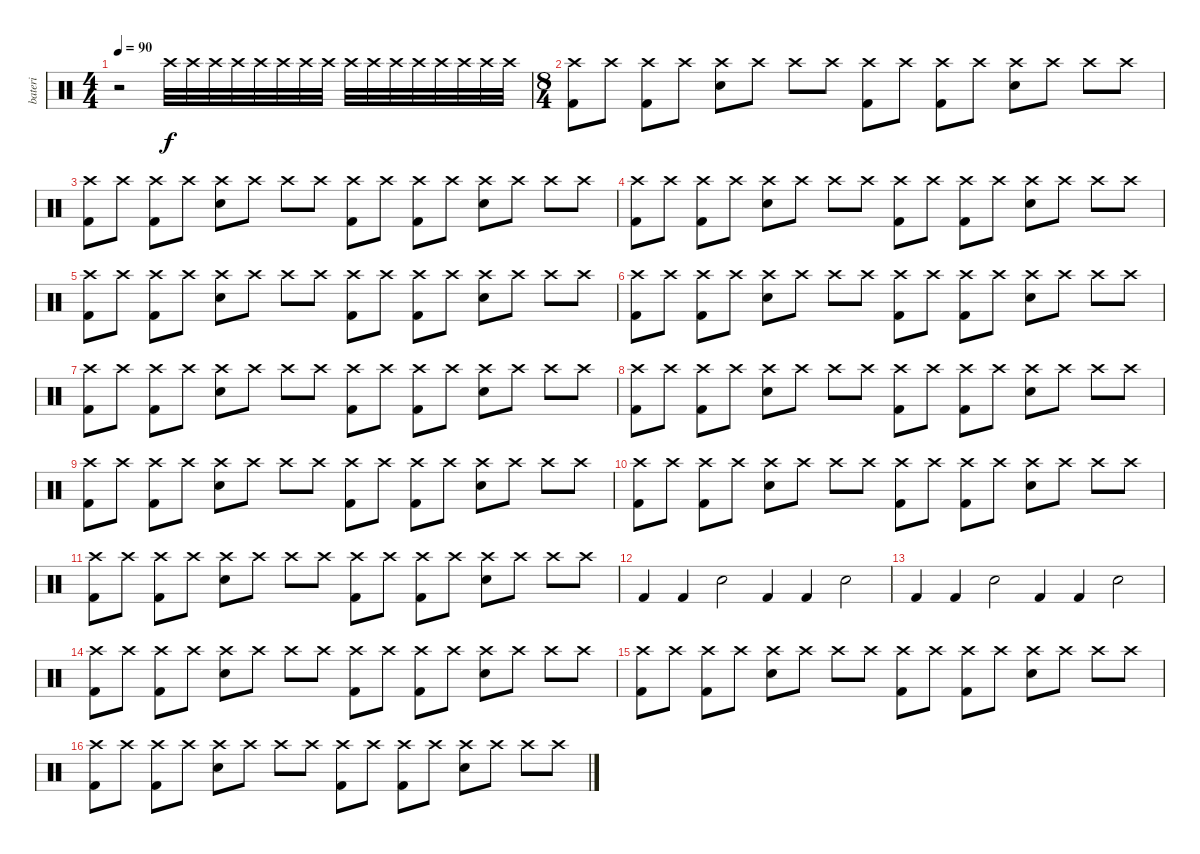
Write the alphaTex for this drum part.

\track ("bateri" "bateri") {instrument percussion}
\staff {score}
\articulation defaults
\ts (4 4)
\tempo 90
\clef neutral
\ks c
r.2{dy f} "Crash high (hit)".32{volume 2} "Crash high (hit)".32{volume 4} "Crash high (hit)".32{volume 5} "Crash high (hit)".32{volume 7} "Crash high (hit)".32{volume 8} "Crash high (hit)".32{volume 9} "Crash high (hit)".32{volume 11} "Crash high (hit)".32{volume 13} "Crash high (hit)".32 "Crash high (hit)".32 "Crash high (hit)".32 "Crash high (hit)".32 "Crash high (hit)".32 "Crash high (hit)".32 "Crash high (hit)".32 "Crash high (hit)".32 |
\ts (8 4)
("Kick (hit) 2" "Crash high (hit)").8 "Crash high (hit)".8 ("Crash high (hit)" "Kick (hit) 2").8 "Crash high (hit)".8 ("Crash high (hit)" "Snare (hit) 2").8 "Crash high (hit)".8 "Crash high (hit)".8 "Crash high (hit)".8 ("Kick (hit) 2" "Crash high (hit)").8 "Crash high (hit)".8 ("Crash high (hit)" "Kick (hit) 2").8 "Crash high (hit)".8 ("Crash high (hit)" "Snare (hit) 2").8 "Crash high (hit)".8 "Crash high (hit)".8 "Crash high (hit)".8 |
("Kick (hit) 2" "Crash high (hit)").8 "Crash high (hit)".8 ("Crash high (hit)" "Kick (hit) 2").8 "Crash high (hit)".8 ("Crash high (hit)" "Snare (hit) 2").8 "Crash high (hit)".8 "Crash high (hit)".8 "Crash high (hit)".8 ("Kick (hit) 2" "Crash high (hit)").8 "Crash high (hit)".8 ("Crash high (hit)" "Kick (hit) 2").8 "Crash high (hit)".8 ("Crash high (hit)" "Snare (hit) 2").8 "Crash high (hit)".8 "Crash high (hit)".8 "Crash high (hit)".8 |
("Kick (hit) 2" "Crash high (hit)").8 "Crash high (hit)".8 ("Crash high (hit)" "Kick (hit) 2").8 "Crash high (hit)".8 ("Crash high (hit)" "Snare (hit) 2").8 "Crash high (hit)".8 "Crash high (hit)".8 "Crash high (hit)".8 ("Kick (hit) 2" "Crash high (hit)").8 "Crash high (hit)".8 ("Crash high (hit)" "Kick (hit) 2").8 "Crash high (hit)".8 ("Crash high (hit)" "Snare (hit) 2").8 "Crash high (hit)".8 "Crash high (hit)".8 "Crash high (hit)".8 |
("Kick (hit) 2" "Crash high (hit)").8 "Crash high (hit)".8 ("Crash high (hit)" "Kick (hit) 2").8 "Crash high (hit)".8 ("Crash high (hit)" "Snare (hit) 2").8 "Crash high (hit)".8 "Crash high (hit)".8 "Crash high (hit)".8 ("Kick (hit) 2" "Crash high (hit)").8 "Crash high (hit)".8 ("Crash high (hit)" "Kick (hit) 2").8 "Crash high (hit)".8 ("Crash high (hit)" "Snare (hit) 2").8 "Crash high (hit)".8 "Crash high (hit)".8 "Crash high (hit)".8 |
("Kick (hit) 2" "Crash high (hit)").8 "Crash high (hit)".8 ("Crash high (hit)" "Kick (hit) 2").8 "Crash high (hit)".8 ("Crash high (hit)" "Snare (hit) 2").8 "Crash high (hit)".8 "Crash high (hit)".8 "Crash high (hit)".8 ("Kick (hit) 2" "Crash high (hit)").8 "Crash high (hit)".8 ("Crash high (hit)" "Kick (hit) 2").8 "Crash high (hit)".8 ("Crash high (hit)" "Snare (hit) 2").8 "Crash high (hit)".8 "Crash high (hit)".8 "Crash high (hit)".8 |
("Kick (hit) 2" "Crash high (hit)").8 "Crash high (hit)".8 ("Crash high (hit)" "Kick (hit) 2").8 "Crash high (hit)".8 ("Crash high (hit)" "Snare (hit) 2").8 "Crash high (hit)".8 "Crash high (hit)".8 "Crash high (hit)".8 ("Kick (hit) 2" "Crash high (hit)").8 "Crash high (hit)".8 ("Crash high (hit)" "Kick (hit) 2").8 "Crash high (hit)".8 ("Crash high (hit)" "Snare (hit) 2").8 "Crash high (hit)".8 "Crash high (hit)".8 "Crash high (hit)".8 |
("Kick (hit) 2" "Crash high (hit)").8 "Crash high (hit)".8 ("Crash high (hit)" "Kick (hit) 2").8 "Crash high (hit)".8 ("Crash high (hit)" "Snare (hit) 2").8 "Crash high (hit)".8 "Crash high (hit)".8 "Crash high (hit)".8 ("Kick (hit) 2" "Crash high (hit)").8 "Crash high (hit)".8 ("Crash high (hit)" "Kick (hit) 2").8 "Crash high (hit)".8 ("Crash high (hit)" "Snare (hit) 2").8 "Crash high (hit)".8 "Crash high (hit)".8 "Crash high (hit)".8 |
("Kick (hit) 2" "Crash high (hit)").8 "Crash high (hit)".8 ("Crash high (hit)" "Kick (hit) 2").8 "Crash high (hit)".8 ("Crash high (hit)" "Snare (hit) 2").8 "Crash high (hit)".8 "Crash high (hit)".8 "Crash high (hit)".8 ("Kick (hit) 2" "Crash high (hit)").8 "Crash high (hit)".8 ("Crash high (hit)" "Kick (hit) 2").8 "Crash high (hit)".8 ("Crash high (hit)" "Snare (hit) 2").8 "Crash high (hit)".8 "Crash high (hit)".8 "Crash high (hit)".8 |
("Kick (hit) 2" "Crash high (hit)").8 "Crash high (hit)".8 ("Crash high (hit)" "Kick (hit) 2").8 "Crash high (hit)".8 ("Crash high (hit)" "Snare (hit) 2").8 "Crash high (hit)".8 "Crash high (hit)".8 "Crash high (hit)".8 ("Kick (hit) 2" "Crash high (hit)").8 "Crash high (hit)".8 ("Crash high (hit)" "Kick (hit) 2").8 "Crash high (hit)".8 ("Crash high (hit)" "Snare (hit) 2").8 "Crash high (hit)".8 "Crash high (hit)".8 "Crash high (hit)".8 |
("Kick (hit) 2" "Crash high (hit)").8 "Crash high (hit)".8 ("Crash high (hit)" "Kick (hit) 2").8 "Crash high (hit)".8 ("Crash high (hit)" "Snare (hit) 2").8 "Crash high (hit)".8 "Crash high (hit)".8 "Crash high (hit)".8 ("Kick (hit) 2" "Crash high (hit)").8 "Crash high (hit)".8 ("Crash high (hit)" "Kick (hit) 2").8 "Crash high (hit)".8 ("Crash high (hit)" "Snare (hit) 2").8 "Crash high (hit)".8 "Crash high (hit)".8 "Crash high (hit)".8 |
"Kick (hit) 2".4 "Kick (hit) 2".4 "Snare (hit) 2".2 "Kick (hit) 2".4 "Kick (hit) 2".4 "Snare (hit) 2".2 |
"Kick (hit) 2".4 "Kick (hit) 2".4 "Snare (hit) 2".2 "Kick (hit) 2".4 "Kick (hit) 2".4 "Snare (hit) 2".2 |
("Kick (hit) 2" "Crash high (hit)").8 "Crash high (hit)".8 ("Crash high (hit)" "Kick (hit) 2").8 "Crash high (hit)".8 ("Crash high (hit)" "Snare (hit) 2").8 "Crash high (hit)".8 "Crash high (hit)".8 "Crash high (hit)".8 ("Kick (hit) 2" "Crash high (hit)").8 "Crash high (hit)".8 ("Crash high (hit)" "Kick (hit) 2").8 "Crash high (hit)".8 ("Crash high (hit)" "Snare (hit) 2").8 "Crash high (hit)".8 "Crash high (hit)".8 "Crash high (hit)".8 |
("Kick (hit) 2" "Crash high (hit)").8 "Crash high (hit)".8 ("Crash high (hit)" "Kick (hit) 2").8 "Crash high (hit)".8 ("Crash high (hit)" "Snare (hit) 2").8 "Crash high (hit)".8 "Crash high (hit)".8 "Crash high (hit)".8 ("Kick (hit) 2" "Crash high (hit)").8 "Crash high (hit)".8 ("Crash high (hit)" "Kick (hit) 2").8 "Crash high (hit)".8 ("Crash high (hit)" "Snare (hit) 2").8 "Crash high (hit)".8 "Crash high (hit)".8 "Crash high (hit)".8 |
("Kick (hit) 2" "Crash high (hit)").8 "Crash high (hit)".8 ("Crash high (hit)" "Kick (hit) 2").8 "Crash high (hit)".8 ("Crash high (hit)" "Snare (hit) 2").8 "Crash high (hit)".8 "Crash high (hit)".8 "Crash high (hit)".8 ("Kick (hit) 2" "Crash high (hit)").8 "Crash high (hit)".8 ("Crash high (hit)" "Kick (hit) 2").8 "Crash high (hit)".8 ("Crash high (hit)" "Snare (hit) 2").8 "Crash high (hit)".8 "Crash high (hit)".8 "Crash high (hit)".8
